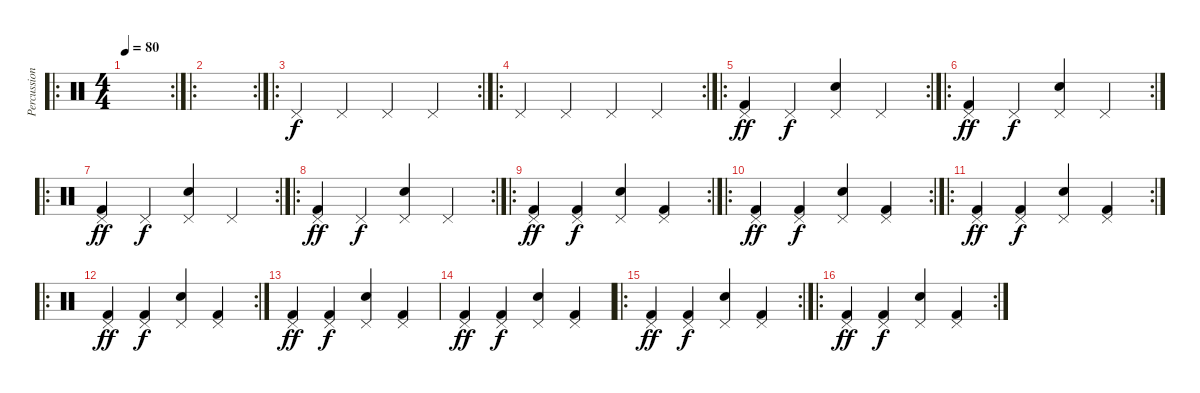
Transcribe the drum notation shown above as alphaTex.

\track ("Percussions" "Percussion") {instrument percussion}
\staff {score}
\articulation defaults
\ro
\rc 2
\ts (4 4)
\tempo 80
\clef neutral
\ks c
|
\ro
\rc 2
|
\ro
\rc 2 "Pedal Hi-Hat (hit)".4 "Pedal Hi-Hat (hit)".4 "Pedal Hi-Hat (hit)".4 "Pedal Hi-Hat (hit)".4
|
\ro
\rc 2 "Pedal Hi-Hat (hit)".4 "Pedal Hi-Hat (hit)".4 "Pedal Hi-Hat (hit)".4 "Pedal Hi-Hat (hit)".4
|
\ro
\rc 2
("Pedal Hi-Hat (hit)" "Kick (hit) 2").4{dy ff} "Pedal Hi-Hat (hit)".4{dy f} ("Pedal Hi-Hat (hit)" "Snare (hit) 2").4 "Pedal Hi-Hat (hit)".4 |
\ro
\rc 2
("Pedal Hi-Hat (hit)" "Kick (hit) 2").4{dy ff} "Pedal Hi-Hat (hit)".4{dy f} ("Pedal Hi-Hat (hit)" "Snare (hit) 2").4 "Pedal Hi-Hat (hit)".4 |
\ro
\rc 2
("Pedal Hi-Hat (hit)" "Kick (hit) 2").4{dy ff} "Pedal Hi-Hat (hit)".4{dy f} ("Pedal Hi-Hat (hit)" "Snare (hit) 2").4 "Pedal Hi-Hat (hit)".4 |
\ro
\rc 2
("Pedal Hi-Hat (hit)" "Kick (hit) 2").4{dy ff} "Pedal Hi-Hat (hit)".4{dy f} ("Pedal Hi-Hat (hit)" "Snare (hit) 2").4 "Pedal Hi-Hat (hit)".4 |
\ro
\rc 2
("Pedal Hi-Hat (hit)" "Kick (hit) 2").4{dy ff} ("Pedal Hi-Hat (hit)" "Kick (hit) 2").4{dy f} ("Pedal Hi-Hat (hit)" "Snare (hit) 2").4 ("Pedal Hi-Hat (hit)" "Kick (hit) 2").4 |
\ro
\rc 2
("Pedal Hi-Hat (hit)" "Kick (hit) 2").4{dy ff} ("Pedal Hi-Hat (hit)" "Kick (hit) 2").4{dy f} ("Pedal Hi-Hat (hit)" "Snare (hit) 2").4 ("Pedal Hi-Hat (hit)" "Kick (hit) 2").4 |
\ro
\rc 2
("Pedal Hi-Hat (hit)" "Kick (hit) 2").4{dy ff} ("Pedal Hi-Hat (hit)" "Kick (hit) 2").4{dy f} ("Pedal Hi-Hat (hit)" "Snare (hit) 2").4 ("Pedal Hi-Hat (hit)" "Kick (hit) 2").4 |
\ro
\rc 2
("Pedal Hi-Hat (hit)" "Kick (hit) 2").4{dy ff} ("Pedal Hi-Hat (hit)" "Kick (hit) 2").4{dy f} ("Pedal Hi-Hat (hit)" "Snare (hit) 2").4 ("Pedal Hi-Hat (hit)" "Kick (hit) 2").4 |
("Pedal Hi-Hat (hit)" "Kick (hit) 2").4{dy ff} ("Pedal Hi-Hat (hit)" "Kick (hit) 2").4{dy f} ("Pedal Hi-Hat (hit)" "Snare (hit) 2").4 ("Pedal Hi-Hat (hit)" "Kick (hit) 2").4 |
("Pedal Hi-Hat (hit)" "Kick (hit) 2").4{dy ff} ("Pedal Hi-Hat (hit)" "Kick (hit) 2").4{dy f} ("Pedal Hi-Hat (hit)" "Snare (hit) 2").4 ("Pedal Hi-Hat (hit)" "Kick (hit) 2").4 |
\ro
\rc 2
("Pedal Hi-Hat (hit)" "Kick (hit) 2").4{dy ff} ("Pedal Hi-Hat (hit)" "Kick (hit) 2").4{dy f} ("Pedal Hi-Hat (hit)" "Snare (hit) 2").4 ("Pedal Hi-Hat (hit)" "Kick (hit) 2").4 |
\ro
\rc 2
("Pedal Hi-Hat (hit)" "Kick (hit) 2").4{dy ff} ("Pedal Hi-Hat (hit)" "Kick (hit) 2").4{dy f} ("Pedal Hi-Hat (hit)" "Snare (hit) 2").4 ("Pedal Hi-Hat (hit)" "Kick (hit) 2").4
